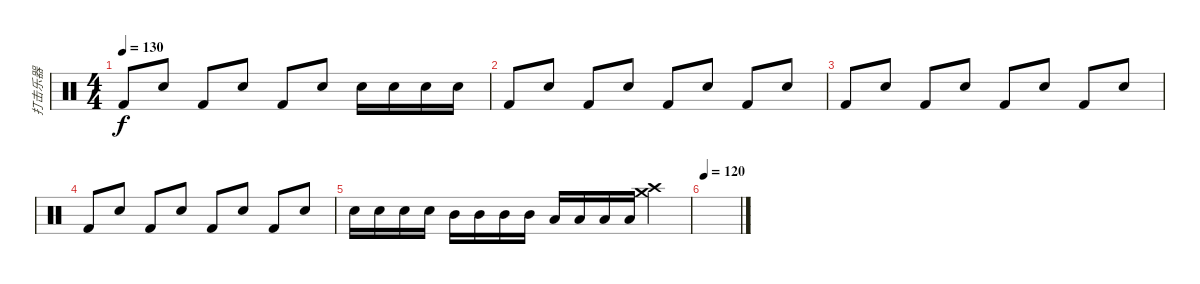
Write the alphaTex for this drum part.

\track ("打击乐器" "打击乐器") {instrument percussion}
\staff {score}
\articulation defaults
\ts (4 4)
\tempo 130
\clef neutral
\ks c "Kick (hit) 2".8{dy f} "Snare (hit) 2".8 "Kick (hit) 2".8 "Snare (hit) 2".8 "Kick (hit) 2".8 "Snare (hit) 2".8 "Snare (hit) 2".16 "Snare (hit) 2".16 "Snare (hit) 2".16 "Snare (hit) 2".16
|
"Kick (hit) 2".8 "Snare (hit) 2".8 "Kick (hit) 2".8 "Snare (hit) 2".8 "Kick (hit) 2".8 "Snare (hit) 2".8 "Kick (hit) 2".8 "Snare (hit) 2".8 |
"Kick (hit) 2".8 "Snare (hit) 2".8 "Kick (hit) 2".8 "Snare (hit) 2".8 "Kick (hit) 2".8 "Snare (hit) 2".8 "Kick (hit) 2".8 "Snare (hit) 2".8 |
"Kick (hit) 2".8 "Snare (hit) 2".8 "Kick (hit) 2".8 "Snare (hit) 2".8 "Kick (hit) 2".8 "Snare (hit) 2".8 "Kick (hit) 2".8 "Snare (hit) 2".8 |
"Snare (hit) 2".16 "Snare (hit) 2".16 "Snare (hit) 2".16 "Snare (hit) 2".16 "Mid Tom (hit)".16 "Mid Tom (hit)".16 "Mid Tom (hit)".16 "Mid Tom (hit)".16 "Low Tom (hit)".16 "Low Tom (hit)".16 "Low Tom (hit)".16 "Low Tom (hit)".16 ("Crash high (hit)" "Crash medium (hit)").4 |
\tempo 120
